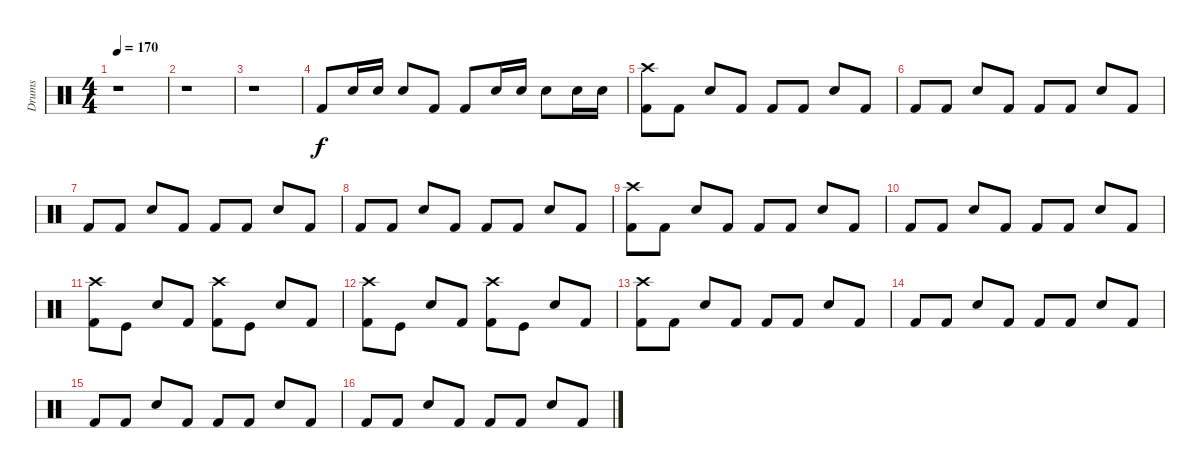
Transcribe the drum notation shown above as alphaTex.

\track ("Drums" "Drums") {instrument percussion}
\staff {score}
\articulation defaults
\ts (4 4)
\tempo 170
\clef neutral
\ks c
r.1{dy f} |
r.1 |
r.1 |
"Kick (hit) 2".8 "Snare (hit) 2".16 "Snare (hit) 2".16 "Snare (hit) 2".8 "Kick (hit) 2".8 "Kick (hit) 2".8 "Snare (hit) 2".16 "Snare (hit) 2".16 "Snare (hit) 2".8 "Snare (hit) 2".16 "Snare (hit) 2".16 |
("Kick (hit) 2" "Crash high (hit)").8 "Kick (hit) 2".8 "Snare (hit) 2".8 "Kick (hit) 2".8 "Kick (hit) 2".8 "Kick (hit) 2".8 "Snare (hit) 2".8 "Kick (hit) 2".8 |
"Kick (hit) 2".8 "Kick (hit) 2".8 "Snare (hit) 2".8 "Kick (hit) 2".8 "Kick (hit) 2".8 "Kick (hit) 2".8 "Snare (hit) 2".8 "Kick (hit) 2".8 |
"Kick (hit) 2".8 "Kick (hit) 2".8 "Snare (hit) 2".8 "Kick (hit) 2".8 "Kick (hit) 2".8 "Kick (hit) 2".8 "Snare (hit) 2".8 "Kick (hit) 2".8 |
"Kick (hit) 2".8 "Kick (hit) 2".8 "Snare (hit) 2".8 "Kick (hit) 2".8 "Kick (hit) 2".8 "Kick (hit) 2".8 "Snare (hit) 2".8 "Kick (hit) 2".8 |
("Kick (hit) 2" "Crash high (hit)").8 "Kick (hit) 2".8 "Snare (hit) 2".8 "Kick (hit) 2".8 "Kick (hit) 2".8 "Kick (hit) 2".8 "Snare (hit) 2".8 "Kick (hit) 2".8 |
"Kick (hit) 2".8 "Kick (hit) 2".8 "Snare (hit) 2".8 "Kick (hit) 2".8 "Kick (hit) 2".8 "Kick (hit) 2".8 "Snare (hit) 2".8 "Kick (hit) 2".8 |
("Kick (hit) 2" "Crash high (hit)").8 "Kick (hit)".8 "Snare (hit) 2".8 "Kick (hit) 2".8 ("Kick (hit) 2" "Crash high (hit)").8 "Kick (hit)".8 "Snare (hit) 2".8 "Kick (hit) 2".8 |
("Kick (hit) 2" "Crash high (hit)").8 "Kick (hit)".8 "Snare (hit) 2".8 "Kick (hit) 2".8 ("Kick (hit) 2" "Crash high (hit)").8 "Kick (hit)".8 "Snare (hit) 2".8 "Kick (hit) 2".8 |
("Kick (hit) 2" "Crash high (hit)").8 "Kick (hit) 2".8 "Snare (hit) 2".8 "Kick (hit) 2".8 "Kick (hit) 2".8 "Kick (hit) 2".8 "Snare (hit) 2".8 "Kick (hit) 2".8 |
"Kick (hit) 2".8 "Kick (hit) 2".8 "Snare (hit) 2".8 "Kick (hit) 2".8 "Kick (hit) 2".8 "Kick (hit) 2".8 "Snare (hit) 2".8 "Kick (hit) 2".8 |
"Kick (hit) 2".8 "Kick (hit) 2".8 "Snare (hit) 2".8 "Kick (hit) 2".8 "Kick (hit) 2".8 "Kick (hit) 2".8 "Snare (hit) 2".8 "Kick (hit) 2".8 |
"Kick (hit) 2".8 "Kick (hit) 2".8 "Snare (hit) 2".8 "Kick (hit) 2".8 "Kick (hit) 2".8 "Kick (hit) 2".8 "Snare (hit) 2".8 "Kick (hit) 2".8
